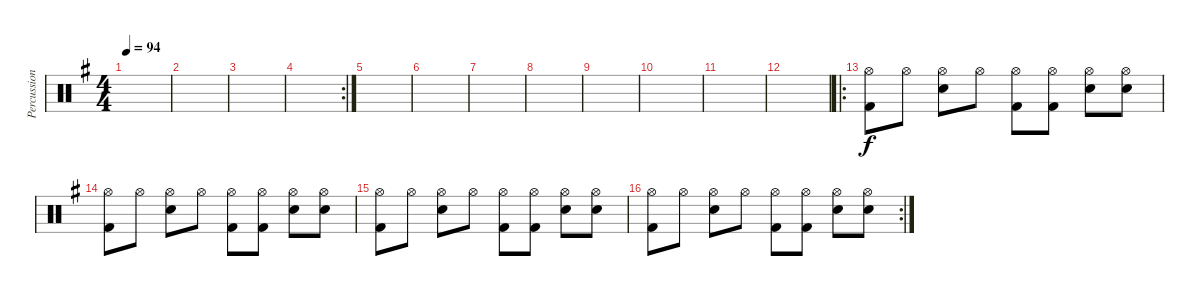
\track ("Percussions" "Percussion") {instrument percussion}
\staff {score}
\articulation defaults
\ts (4 4)
\tempo 94
\clef neutral
\ks g
|
|
|
\rc 2
|
|
|
|
|
|
|
|
|
\ro
("Hi-Hat (open)" "Kick (hit) 2").8 "Hi-Hat (open)".8 ("Hi-Hat (open)" "Snare (hit) 2").8 "Hi-Hat (open)".8 ("Hi-Hat (open)" "Kick (hit) 2").8 ("Hi-Hat (open)" "Kick (hit) 2").8 ("Hi-Hat (open)" "Snare (hit) 2").8 ("Hi-Hat (open)" "Snare (hit) 2").8 |
("Hi-Hat (open)" "Kick (hit) 2").8 "Hi-Hat (open)".8 ("Hi-Hat (open)" "Snare (hit) 2").8 "Hi-Hat (open)".8 ("Hi-Hat (open)" "Kick (hit) 2").8 ("Hi-Hat (open)" "Kick (hit) 2").8 ("Hi-Hat (open)" "Snare (hit) 2").8 ("Hi-Hat (open)" "Snare (hit) 2").8 |
("Hi-Hat (open)" "Kick (hit) 2").8 "Hi-Hat (open)".8 ("Hi-Hat (open)" "Snare (hit) 2").8 "Hi-Hat (open)".8 ("Hi-Hat (open)" "Kick (hit) 2").8 ("Hi-Hat (open)" "Kick (hit) 2").8 ("Hi-Hat (open)" "Snare (hit) 2").8 ("Hi-Hat (open)" "Snare (hit) 2").8 |
\rc 2
("Hi-Hat (open)" "Kick (hit) 2").8 "Hi-Hat (open)".8 ("Hi-Hat (open)" "Snare (hit) 2").8 "Hi-Hat (open)".8 ("Hi-Hat (open)" "Kick (hit) 2").8 ("Hi-Hat (open)" "Kick (hit) 2").8 ("Hi-Hat (open)" "Snare (hit) 2").8 ("Hi-Hat (open)" "Snare (hit) 2").8
